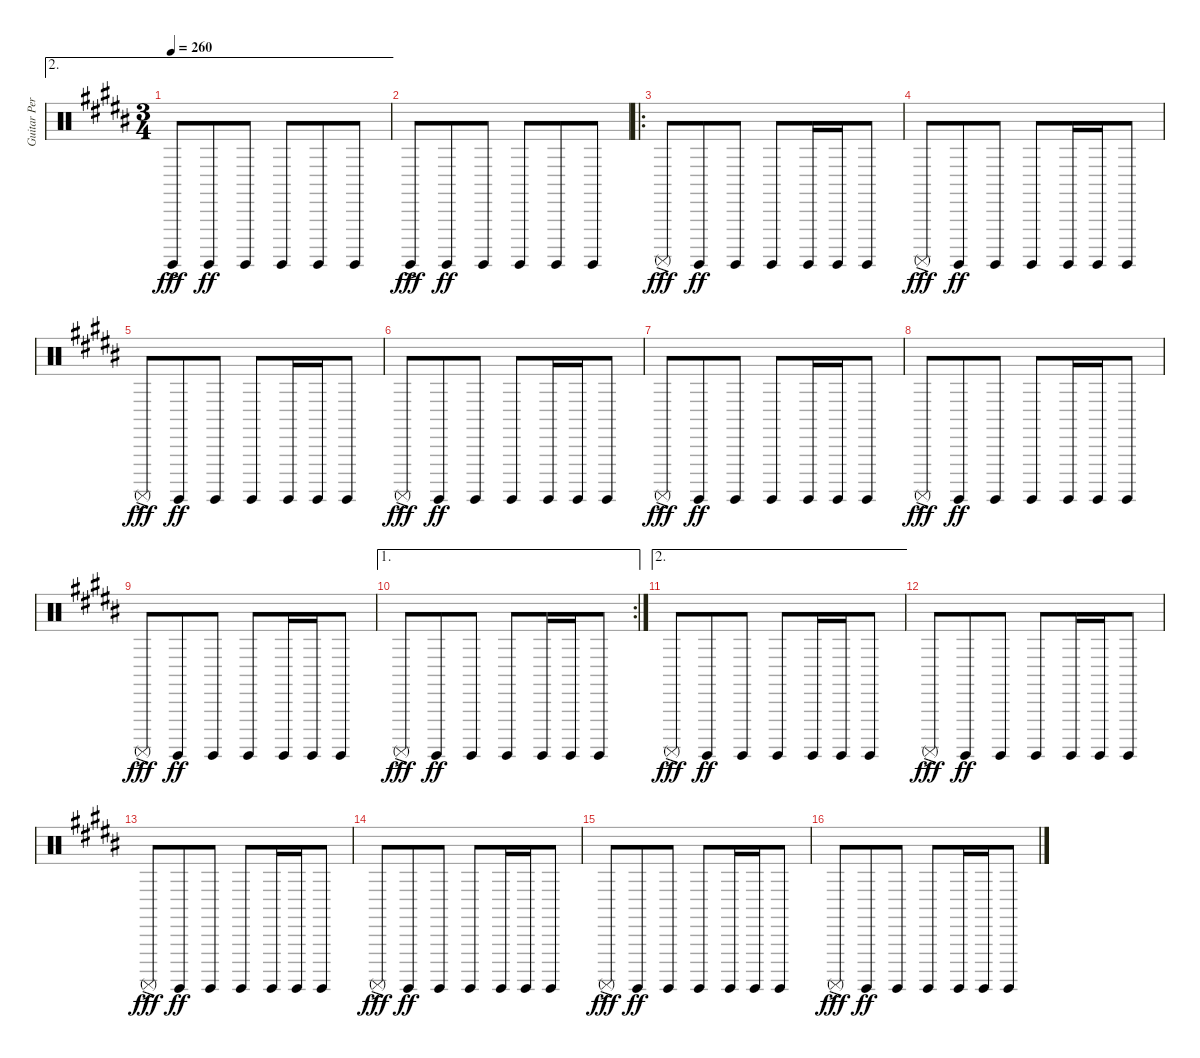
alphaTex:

\track ("Guitar Percussion Noises" "Guitar Per") {instrument percussion}
\staff {score}
\articulation defaults
\ae 2
\ts (3 4)
\tempo 260
\clef neutral
\ks b "Surdo (hit)"{ac}.8{dy fff} "Surdo (hit)".8{dy ff beam merge} "Surdo (hit)".8{beam split} "Surdo (hit)".8{beam merge} "Surdo (hit)".8{beam merge} "Surdo (hit)".8
|
"Surdo (hit)"{ac}.8{dy fff} "Surdo (hit)".8{dy ff beam merge} "Surdo (hit)".8{beam split} "Surdo (hit)".8{beam merge} "Surdo (hit)".8{beam merge} "Surdo (hit)".8 |
\ro "Surdo (mute)"{ac}.8{dy fff} "Surdo (hit)".8{dy ff beam merge} "Surdo (hit)".8{beam split} "Surdo (hit)".8{beam merge} "Surdo (hit)".16{beam merge} "Surdo (hit)".16 "Surdo (hit)".8
|
"Surdo (mute)"{ac}.8{dy fff} "Surdo (hit)".8{dy ff beam merge} "Surdo (hit)".8{beam split} "Surdo (hit)".8{beam merge} "Surdo (hit)".16{beam merge} "Surdo (hit)".16 "Surdo (hit)".8 |
"Surdo (mute)"{ac}.8{dy fff} "Surdo (hit)".8{dy ff beam merge} "Surdo (hit)".8{beam split} "Surdo (hit)".8{beam merge} "Surdo (hit)".16{beam merge} "Surdo (hit)".16 "Surdo (hit)".8 |
"Surdo (mute)"{ac}.8{dy fff} "Surdo (hit)".8{dy ff beam merge} "Surdo (hit)".8{beam split} "Surdo (hit)".8{beam merge} "Surdo (hit)".16{beam merge} "Surdo (hit)".16 "Surdo (hit)".8 |
"Surdo (mute)"{ac}.8{dy fff} "Surdo (hit)".8{dy ff beam merge} "Surdo (hit)".8{beam split} "Surdo (hit)".8{beam merge} "Surdo (hit)".16{beam merge} "Surdo (hit)".16 "Surdo (hit)".8 |
"Surdo (mute)"{ac}.8{dy fff} "Surdo (hit)".8{dy ff beam merge} "Surdo (hit)".8{beam split} "Surdo (hit)".8{beam merge} "Surdo (hit)".16{beam merge} "Surdo (hit)".16 "Surdo (hit)".8 |
"Surdo (mute)"{ac}.8{dy fff} "Surdo (hit)".8{dy ff beam merge} "Surdo (hit)".8{beam split} "Surdo (hit)".8{beam merge} "Surdo (hit)".16{beam merge} "Surdo (hit)".16 "Surdo (hit)".8 |
\ae 1
\rc 2 "Surdo (mute)"{ac}.8{dy fff} "Surdo (hit)".8{dy ff beam merge} "Surdo (hit)".8{beam split} "Surdo (hit)".8{beam merge} "Surdo (hit)".16{beam merge} "Surdo (hit)".16 "Surdo (hit)".8
|
\ae 2 "Surdo (mute)"{ac}.8{dy fff} "Surdo (hit)".8{dy ff beam merge} "Surdo (hit)".8{beam split} "Surdo (hit)".8{beam merge} "Surdo (hit)".16{beam merge} "Surdo (hit)".16 "Surdo (hit)".8
|
"Surdo (mute)"{ac}.8{dy fff} "Surdo (hit)".8{dy ff beam merge} "Surdo (hit)".8{beam split} "Surdo (hit)".8{beam merge} "Surdo (hit)".16{beam merge} "Surdo (hit)".16 "Surdo (hit)".8 |
"Surdo (mute)"{ac}.8{dy fff} "Surdo (hit)".8{dy ff beam merge} "Surdo (hit)".8{beam split} "Surdo (hit)".8{beam merge} "Surdo (hit)".16{beam merge} "Surdo (hit)".16 "Surdo (hit)".8 |
"Surdo (mute)"{ac}.8{dy fff} "Surdo (hit)".8{dy ff beam merge} "Surdo (hit)".8{beam split} "Surdo (hit)".8{beam merge} "Surdo (hit)".16{beam merge} "Surdo (hit)".16 "Surdo (hit)".8 |
"Surdo (mute)"{ac}.8{dy fff} "Surdo (hit)".8{dy ff beam merge} "Surdo (hit)".8{beam split} "Surdo (hit)".8{beam merge} "Surdo (hit)".16{beam merge} "Surdo (hit)".16 "Surdo (hit)".8 |
"Surdo (mute)"{ac}.8{dy fff} "Surdo (hit)".8{dy ff beam merge} "Surdo (hit)".8{beam split} "Surdo (hit)".8{beam merge} "Surdo (hit)".16{beam merge} "Surdo (hit)".16 "Surdo (hit)".8
